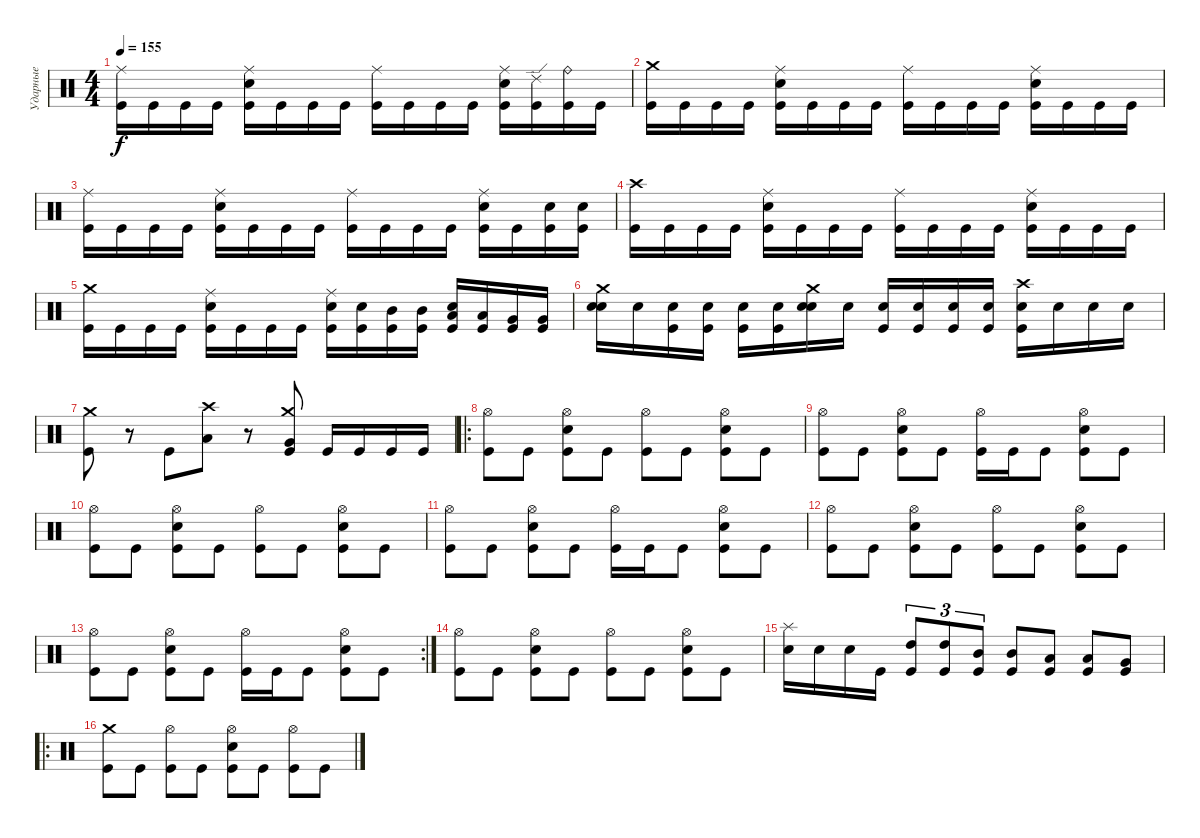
\track ("Ударные" "Ударные") {instrument percussion}
\staff {score}
\articulation defaults
\ts (4 4)
\tempo 155
\clef neutral
\ks c
("Ride (middle)" "Kick (hit)").16{dy f} "Kick (hit)".16 "Kick (hit)".16 "Kick (hit)".16 ("Snare (hit) 2" "Ride (middle)" "Kick (hit)").16 "Kick (hit)".16 "Kick (hit)".16 "Kick (hit)".16 ("Ride (middle)" "Kick (hit)").16 "Kick (hit)".16 "Kick (hit)".16 "Kick (hit)".16 ("Snare (hit) 2" "Ride (middle)" "Kick (hit)").16 ("Ride (edge) 2" "Kick (hit)").16 ("Ride (bell)" "Kick (hit)").16 "Kick (hit)".16 |
("Crash medium (hit)" "Kick (hit)").16 "Kick (hit)".16 "Kick (hit)".16 "Kick (hit)".16 ("Snare (hit) 2" "Ride (middle)" "Kick (hit)").16 "Kick (hit)".16 "Kick (hit)".16 "Kick (hit)".16 ("Ride (middle)" "Kick (hit)").16 "Kick (hit)".16 "Kick (hit)".16 "Kick (hit)".16 ("Snare (hit) 2" "Ride (middle)" "Kick (hit)").16 "Kick (hit)".16 "Kick (hit)".16 "Kick (hit)".16 |
("Ride (middle)" "Kick (hit)").16 "Kick (hit)".16 "Kick (hit)".16 "Kick (hit)".16 ("Snare (hit) 2" "Ride (middle)" "Kick (hit)").16 "Kick (hit)".16 "Kick (hit)".16 "Kick (hit)".16 ("Ride (middle)" "Kick (hit)").16 "Kick (hit)".16 "Kick (hit)".16 "Kick (hit)".16 ("Snare (hit) 2" "Ride (middle)" "Kick (hit)").16 "Kick (hit)".16 ("Snare (hit) 2" "Kick (hit)").16 ("Snare (hit) 2" "Kick (hit)").16 |
("Crash high (hit)" "Kick (hit)").16 "Kick (hit)".16 "Kick (hit)".16 "Kick (hit)".16 ("Snare (hit) 2" "Ride (middle)" "Kick (hit)").16 "Kick (hit)".16 "Kick (hit)".16 "Kick (hit)".16 ("Ride (middle)" "Kick (hit)").16 "Kick (hit)".16 "Kick (hit)".16 "Kick (hit)".16 ("Snare (hit) 2" "Ride (middle)" "Kick (hit)").16 "Kick (hit)".16 "Kick (hit)".16 "Kick (hit)".16 |
("Crash medium (hit)" "Kick (hit)").16 "Kick (hit)".16 "Kick (hit)".16 "Kick (hit)".16 ("Snare (hit) 2" "Ride (middle)" "Kick (hit)").16 "Kick (hit)".16 "Kick (hit)".16 "Kick (hit)".16 ("Ride (middle)" "Snare (hit) 2" "Kick (hit)").16 ("Snare (hit) 2" "Kick (hit)").16 ("Mid Tom (hit)" "Kick (hit)").16 ("Mid Tom (hit)" "Kick (hit)").16 ("Snare (hit) 2" "Low Tom (hit)" "Kick (hit)").16 ("Low Tom (hit)" "Kick (hit)").16 ("Very Low Tom (hit)" "Kick (hit)").16 ("Very Low Tom (hit)" "Kick (hit)").16 |
("Snare (hit) 2" "Crash medium (hit)" "Snare (hit)").16 "Snare (hit)".16 ("Kick (hit)" "Snare (hit)").16 ("Kick (hit)" "Snare (hit)").16 ("Kick (hit)" "Snare (hit)").16 ("Kick (hit)" "Snare (hit)").16 ("Snare (hit) 2" "Crash medium (hit)" "Snare (hit)").16 "Snare (hit)".16 ("Kick (hit)" "Snare (hit)").16 ("Kick (hit)" "Snare (hit)").16 ("Kick (hit)" "Snare (hit)").16 ("Kick (hit)" "Snare (hit)").16 ("Crash high (hit)" "Kick (hit)" "Snare (hit)").16 "Snare (hit)".16 "Snare (hit)".16 "Snare (hit)".16 |
("Crash medium (hit)" "Kick (hit)").8 r.8 "Kick (hit)".8 ("Crash high (hit)" "Low Tom (hit)").8 r.8 ("Crash medium (hit)" "Very Low Tom (hit)" "Kick (hit)").8 "Kick (hit)".16 "Kick (hit)".16 "Kick (hit)".16 "Kick (hit)".16 |
\ro
("Hi-Hat (open)" "Kick (hit)").8 "Kick (hit)".8 ("Snare (hit) 2" "Hi-Hat (open)" "Kick (hit)").8 "Kick (hit)".8 ("Hi-Hat (open)" "Kick (hit)").8 "Kick (hit)".8 ("Snare (hit) 2" "Hi-Hat (open)" "Kick (hit)").8 "Kick (hit)".8 |
("Hi-Hat (open)" "Kick (hit)").8 "Kick (hit)".8 ("Snare (hit) 2" "Hi-Hat (open)" "Kick (hit)").8 "Kick (hit)".8 ("Hi-Hat (open)" "Kick (hit)").16 "Kick (hit)".16 "Kick (hit)".8 ("Snare (hit) 2" "Hi-Hat (open)" "Kick (hit)").8 "Kick (hit)".8 |
("Hi-Hat (open)" "Kick (hit)").8 "Kick (hit)".8 ("Snare (hit) 2" "Hi-Hat (open)" "Kick (hit)").8 "Kick (hit)".8 ("Hi-Hat (open)" "Kick (hit)").8 "Kick (hit)".8 ("Snare (hit) 2" "Hi-Hat (open)" "Kick (hit)").8 "Kick (hit)".8 |
("Hi-Hat (open)" "Kick (hit)").8 "Kick (hit)".8 ("Snare (hit) 2" "Hi-Hat (open)" "Kick (hit)").8 "Kick (hit)".8 ("Hi-Hat (open)" "Kick (hit)").16 "Kick (hit)".16 "Kick (hit)".8 ("Snare (hit) 2" "Hi-Hat (open)" "Kick (hit)").8 "Kick (hit)".8 |
("Hi-Hat (open)" "Kick (hit)").8 "Kick (hit)".8 ("Snare (hit) 2" "Hi-Hat (open)" "Kick (hit)").8 "Kick (hit)".8 ("Hi-Hat (open)" "Kick (hit)").8 "Kick (hit)".8 ("Snare (hit) 2" "Hi-Hat (open)" "Kick (hit)").8 "Kick (hit)".8 |
\rc 2
("Hi-Hat (open)" "Kick (hit)").8 "Kick (hit)".8 ("Snare (hit) 2" "Hi-Hat (open)" "Kick (hit)").8 "Kick (hit)".8 ("Hi-Hat (open)" "Kick (hit)").16 "Kick (hit)".16 "Kick (hit)".8 ("Snare (hit) 2" "Hi-Hat (open)" "Kick (hit)").8 "Kick (hit)".8 |
("Hi-Hat (open)" "Kick (hit)").8 "Kick (hit)".8 ("Snare (hit) 2" "Hi-Hat (open)" "Kick (hit)").8 "Kick (hit)".8 ("Hi-Hat (open)" "Kick (hit)").8 "Kick (hit)".8 ("Snare (hit) 2" "Hi-Hat (open)" "Kick (hit)").8 "Kick (hit)".8 |
("Snare (hit) 2" "Splash (hit)").16 "Snare (hit) 2".16 "Snare (hit) 2".16 "Kick (hit)".16 ("High Tom (hit)" "Kick (hit)").8{tu (3 2)} ("High Tom (hit)" "Kick (hit)").8{tu (3 2)} ("Mid Tom (hit)" "Kick (hit)").8{tu (3 2)} ("Mid Tom (hit)" "Kick (hit)").8 ("Low Tom (hit)" "Kick (hit)").8 ("Low Tom (hit)" "Kick (hit)").8 ("Very Low Tom (hit)" "Kick (hit)").8 |
\ro
("Crash medium (hit)" "Kick (hit)").8 "Kick (hit)".8 ("Hi-Hat (open)" "Kick (hit)").8 "Kick (hit)".8 ("Snare (hit) 2" "Hi-Hat (open)" "Kick (hit)").8 "Kick (hit)".8 ("Hi-Hat (open)" "Kick (hit)").8 "Kick (hit)".8
